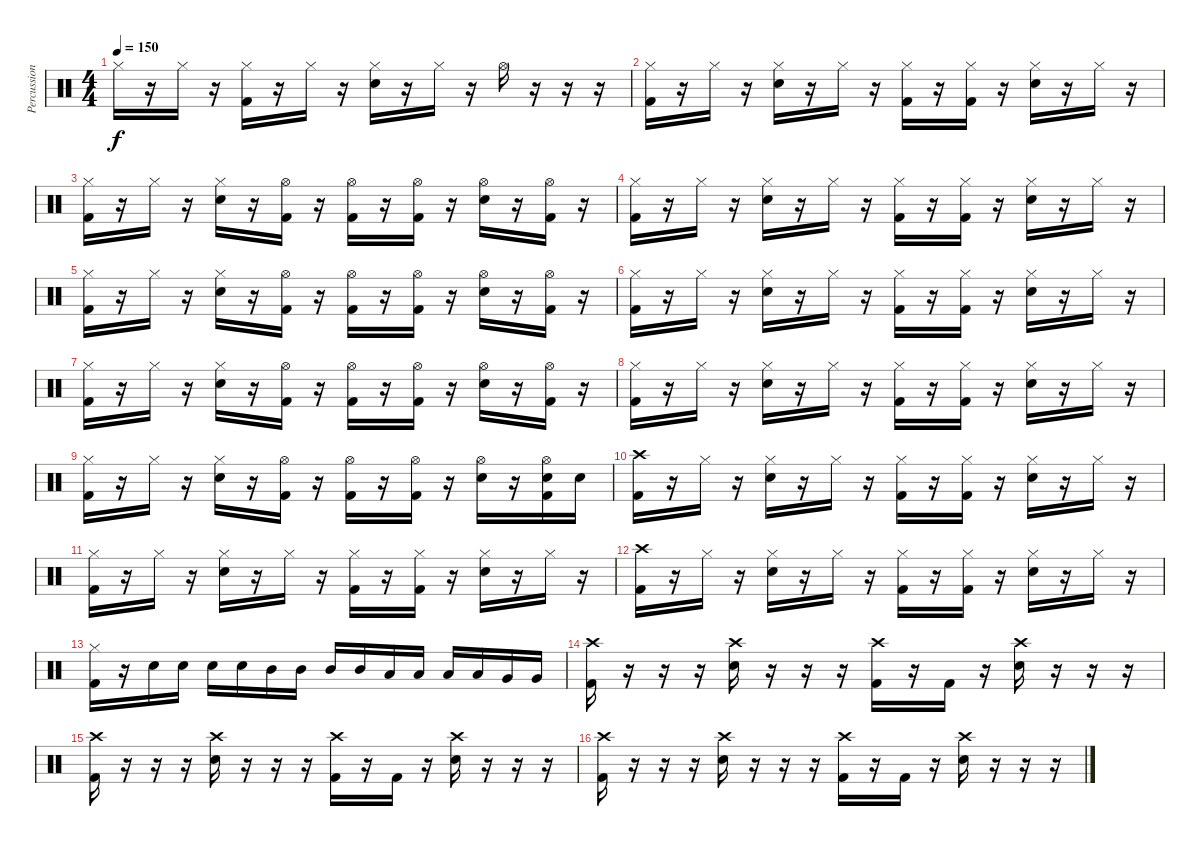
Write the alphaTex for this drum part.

\track ("Percussion" "Percussion") {instrument percussion}
\staff {score}
\articulation defaults
\ts (4 4)
\tempo 150
\clef neutral
\ks c "Hi-Hat (closed)".16{dy f}
r.16 "Hi-Hat (closed)".16 r.16 ("Hi-Hat (closed)" "Kick (hit) 2").16 r.16 "Hi-Hat (closed)".16 r.16 ("Hi-Hat (closed)" "Electric Snare (hit)").16 r.16 "Hi-Hat (closed)".16 r.16 "Hi-Hat (open)".16 r.16 r.16 r.16 |
("Hi-Hat (closed)" "Kick (hit) 2").16 r.16 "Hi-Hat (closed)".16 r.16 ("Hi-Hat (closed)" "Electric Snare (hit)").16 r.16 "Hi-Hat (closed)".16 r.16 ("Hi-Hat (closed)" "Kick (hit) 2").16 r.16 ("Hi-Hat (closed)" "Kick (hit) 2").16 r.16 ("Hi-Hat (closed)" "Electric Snare (hit)").16 r.16 "Hi-Hat (closed)".16 r.16 |
("Hi-Hat (closed)" "Kick (hit) 2").16 r.16 "Hi-Hat (closed)".16 r.16 ("Hi-Hat (closed)" "Electric Snare (hit)").16 r.16 ("Hi-Hat (open)" "Kick (hit) 2").16 r.16 ("Hi-Hat (open)" "Kick (hit) 2").16 r.16 ("Hi-Hat (open)" "Kick (hit) 2").16 r.16 ("Hi-Hat (open)" "Electric Snare (hit)").16 r.16 ("Hi-Hat (open)" "Kick (hit) 2").16 r.16 |
("Hi-Hat (closed)" "Kick (hit) 2").16 r.16 "Hi-Hat (closed)".16 r.16 ("Hi-Hat (closed)" "Electric Snare (hit)").16 r.16 "Hi-Hat (closed)".16 r.16 ("Hi-Hat (closed)" "Kick (hit) 2").16 r.16 ("Hi-Hat (closed)" "Kick (hit) 2").16 r.16 ("Hi-Hat (closed)" "Electric Snare (hit)").16 r.16 "Hi-Hat (closed)".16 r.16 |
("Hi-Hat (closed)" "Kick (hit) 2").16 r.16 "Hi-Hat (closed)".16 r.16 ("Hi-Hat (closed)" "Electric Snare (hit)").16 r.16 ("Hi-Hat (open)" "Kick (hit) 2").16 r.16 ("Hi-Hat (open)" "Kick (hit) 2").16 r.16 ("Hi-Hat (open)" "Kick (hit) 2").16 r.16 ("Hi-Hat (open)" "Electric Snare (hit)").16 r.16 ("Hi-Hat (open)" "Kick (hit) 2").16 r.16 |
("Hi-Hat (closed)" "Kick (hit) 2").16 r.16 "Hi-Hat (closed)".16 r.16 ("Hi-Hat (closed)" "Electric Snare (hit)").16 r.16 "Hi-Hat (closed)".16 r.16 ("Hi-Hat (closed)" "Kick (hit) 2").16 r.16 ("Hi-Hat (closed)" "Kick (hit) 2").16 r.16 ("Hi-Hat (closed)" "Electric Snare (hit)").16 r.16 "Hi-Hat (closed)".16 r.16 |
("Hi-Hat (closed)" "Kick (hit) 2").16 r.16 "Hi-Hat (closed)".16 r.16 ("Hi-Hat (closed)" "Electric Snare (hit)").16 r.16 ("Hi-Hat (open)" "Kick (hit) 2").16 r.16 ("Hi-Hat (open)" "Kick (hit) 2").16 r.16 ("Hi-Hat (open)" "Kick (hit) 2").16 r.16 ("Hi-Hat (open)" "Electric Snare (hit)").16 r.16 ("Hi-Hat (open)" "Kick (hit) 2").16 r.16 |
("Hi-Hat (closed)" "Kick (hit) 2").16 r.16 "Hi-Hat (closed)".16 r.16 ("Hi-Hat (closed)" "Electric Snare (hit)").16 r.16 "Hi-Hat (closed)".16 r.16 ("Hi-Hat (closed)" "Kick (hit) 2").16 r.16 ("Hi-Hat (closed)" "Kick (hit) 2").16 r.16 ("Hi-Hat (closed)" "Electric Snare (hit)").16 r.16 "Hi-Hat (closed)".16 r.16 |
("Hi-Hat (closed)" "Kick (hit) 2").16 r.16 "Hi-Hat (closed)".16 r.16 ("Hi-Hat (closed)" "Electric Snare (hit)").16 r.16 ("Hi-Hat (open)" "Kick (hit) 2").16 r.16 ("Hi-Hat (open)" "Kick (hit) 2").16 r.16 ("Hi-Hat (open)" "Kick (hit) 2").16 r.16 ("Hi-Hat (open)" "Electric Snare (hit)").16 r.16 ("Hi-Hat (open)" "Electric Snare (hit)" "Kick (hit) 2").16 "Electric Snare (hit)".16 |
("Crash high (hit)" "Kick (hit) 2").16 r.16 "Hi-Hat (closed)".16 r.16 ("Hi-Hat (closed)" "Electric Snare (hit)").16 r.16 "Hi-Hat (closed)".16 r.16 ("Hi-Hat (closed)" "Kick (hit) 2").16 r.16 ("Hi-Hat (closed)" "Kick (hit) 2").16 r.16 ("Hi-Hat (closed)" "Electric Snare (hit)").16 r.16 "Hi-Hat (closed)".16 r.16 |
("Hi-Hat (closed)" "Kick (hit) 2").16 r.16 "Hi-Hat (closed)".16 r.16 ("Hi-Hat (closed)" "Electric Snare (hit)").16 r.16 "Hi-Hat (closed)".16 r.16 ("Hi-Hat (closed)" "Kick (hit) 2").16 r.16 ("Hi-Hat (closed)" "Kick (hit) 2").16 r.16 ("Hi-Hat (closed)" "Electric Snare (hit)").16 r.16 "Hi-Hat (closed)".16 r.16 |
("Crash high (hit)" "Kick (hit) 2").16 r.16 "Hi-Hat (closed)".16 r.16 ("Hi-Hat (closed)" "Electric Snare (hit)").16 r.16 "Hi-Hat (closed)".16 r.16 ("Hi-Hat (closed)" "Kick (hit) 2").16 r.16 ("Hi-Hat (closed)" "Kick (hit) 2").16 r.16 ("Hi-Hat (closed)" "Electric Snare (hit)").16 r.16 "Hi-Hat (closed)".16 r.16 |
("Hi-Hat (closed)" "Kick (hit) 2").16 r.16 "Electric Snare (hit)".16 "Electric Snare (hit)".16 "Electric Snare (hit)".16 "Electric Snare (hit)".16 "Mid Tom (hit)".16 "Mid Tom (hit)".16 "Mid Tom (hit)".16 "Mid Tom (hit)".16 "Low Tom (hit)".16 "Low Tom (hit)".16 "Low Tom (hit)".16 "Low Tom (hit)".16 "Very Low Tom (hit)".16 "Very Low Tom (hit)".16 |
("Crash high (hit)" "Kick (hit) 2").16 r.16 r.16 r.16 ("Crash high (hit)" "Electric Snare (hit)").16 r.16 r.16 r.16 ("Crash high (hit)" "Kick (hit) 2").16 r.16 "Kick (hit) 2".16 r.16 ("Crash high (hit)" "Electric Snare (hit)").16 r.16 r.16 r.16 |
("Crash high (hit)" "Kick (hit) 2").16 r.16 r.16 r.16 ("Crash high (hit)" "Electric Snare (hit)").16 r.16 r.16 r.16 ("Crash high (hit)" "Kick (hit) 2").16 r.16 "Kick (hit) 2".16 r.16 ("Crash high (hit)" "Electric Snare (hit)").16 r.16 r.16 r.16 |
("Crash high (hit)" "Kick (hit) 2").16 r.16 r.16 r.16 ("Crash high (hit)" "Electric Snare (hit)").16 r.16 r.16 r.16 ("Crash high (hit)" "Kick (hit) 2").16 r.16 "Kick (hit) 2".16 r.16 ("Crash high (hit)" "Electric Snare (hit)").16 r.16 r.16 r.16
